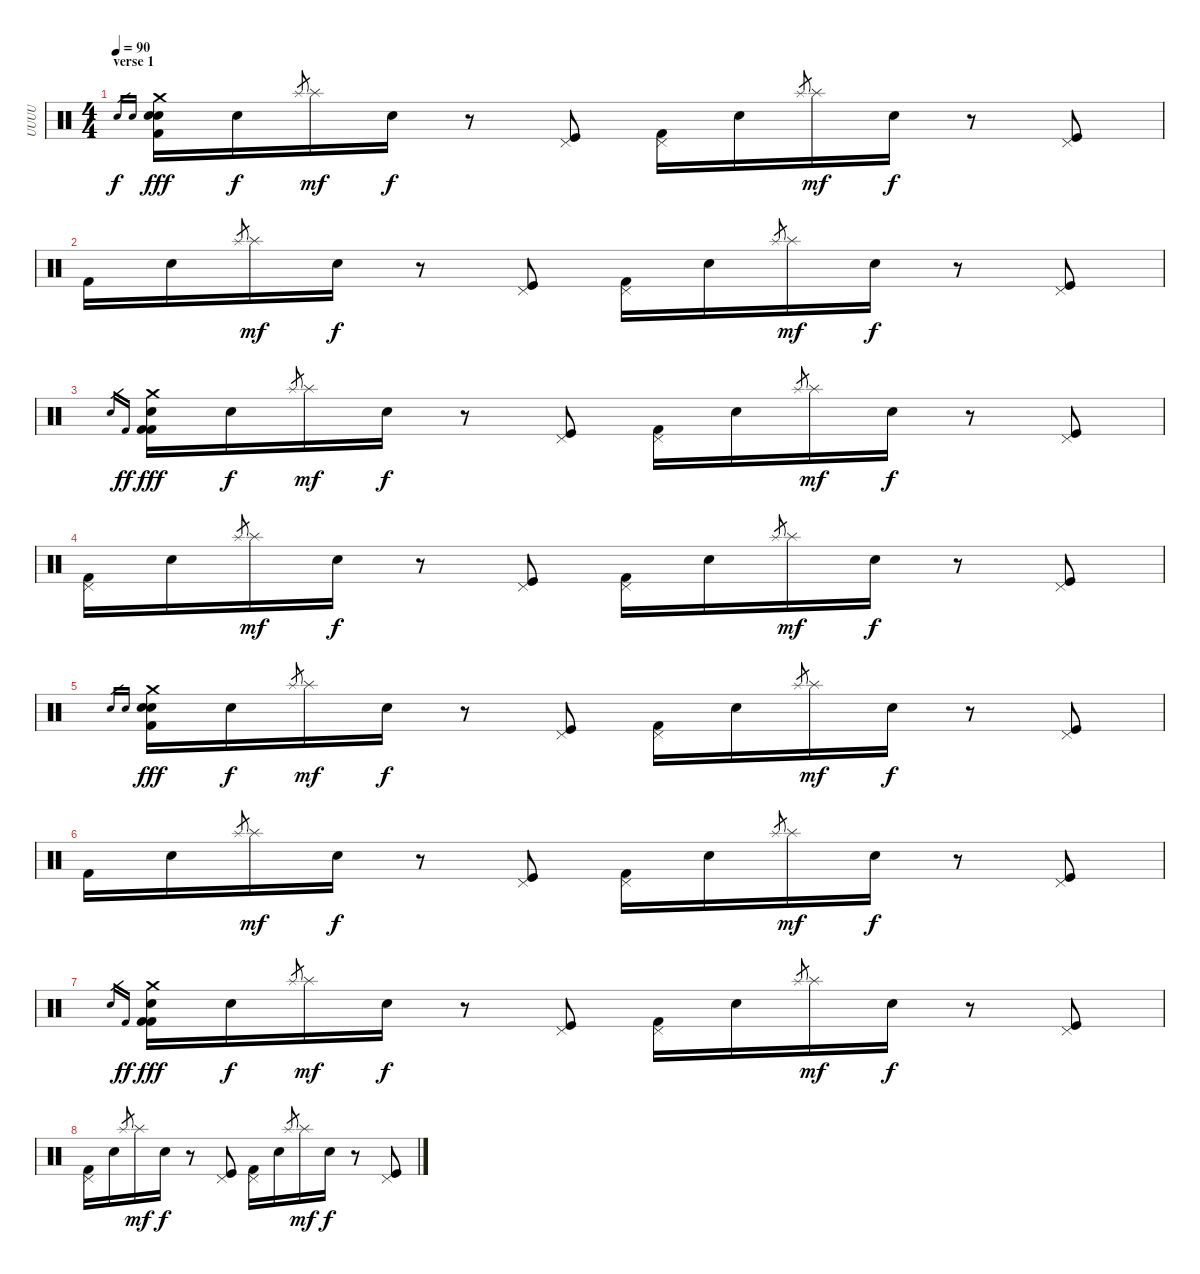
\track ("UUUU" "UUUU") {instrument percussion}
\staff {score}
\articulation defaults
\ts (4 4)
\section ("" "verse 1")
\tempo 90
\clef neutral
\ks c "Electric Snare (hit)".16{gr dy f} "Snare (hit) 2".16{gr}
("Crash medium (hit)" "Kick (hit) 2" "Electric Snare (hit)" "Snare (hit) 2").16{dy fff} "Snare (hit) 2".16{dy f} "Splash (hit)".8{gr} "Splash (hit)".16{dy mf} "Electric Snare (hit)".16{dy f} r.8 ("Pedal Hi-Hat (hit)" "Kick (hit)").8 ("Pedal Hi-Hat (hit)" "Kick (hit) 2").16 "Snare (hit) 2".16 "Splash (hit)"{h}.8{gr} "Splash (hit)".16{dy mf} "Electric Snare (hit)".16{dy f} r.8 ("Pedal Hi-Hat (hit)" "Kick (hit)").8 |
"Kick (hit) 2".16 "Snare (hit) 2".16 "Splash (hit)".8{gr} "Splash (hit)".16{dy mf} "Electric Snare (hit)".16{dy f} r.8 ("Pedal Hi-Hat (hit)" "Kick (hit)").8 ("Pedal Hi-Hat (hit)" "Kick (hit) 2").16 "Snare (hit) 2".16 "Splash (hit)".8{gr} "Splash (hit)".16{dy mf} "Electric Snare (hit)".16{dy f} r.8 ("Pedal Hi-Hat (hit)" "Kick (hit)").8 |
"Electric Snare (hit)".16{gr} "Kick (hit) 2".16{gr dy ff} ("Crash medium (hit)" "Kick (hit) 2" "Electric Snare (hit)" "Kick (hit) 2").16{dy fff} "Snare (hit) 2".16{dy f} "Splash (hit)".8{gr} "Splash (hit)".16{dy mf} "Electric Snare (hit)".16{dy f} r.8 ("Pedal Hi-Hat (hit)" "Kick (hit)").8 ("Pedal Hi-Hat (hit)" "Kick (hit) 2").16 "Snare (hit) 2".16 "Splash (hit)".8{gr} "Splash (hit)".16{dy mf} "Electric Snare (hit)".16{dy f} r.8 ("Pedal Hi-Hat (hit)" "Kick (hit)").8 |
("Pedal Hi-Hat (hit)" "Kick (hit) 2").16 "Snare (hit) 2".16 "Splash (hit)".8{gr} "Splash (hit)".16{dy mf} "Electric Snare (hit)".16{dy f} r.8 ("Pedal Hi-Hat (hit)" "Kick (hit)").8 ("Pedal Hi-Hat (hit)" "Kick (hit) 2").16 "Snare (hit) 2".16 "Splash (hit)"{h}.8{gr} "Splash (hit)".16{dy mf} "Electric Snare (hit)".16{dy f} r.8 ("Pedal Hi-Hat (hit)" "Kick (hit)").8 |
"Electric Snare (hit)".16{gr} "Snare (hit) 2".16{gr} ("Crash medium (hit)" "Kick (hit) 2" "Electric Snare (hit)" "Snare (hit) 2").16{dy fff} "Snare (hit) 2".16{dy f} "Splash (hit)".8{gr} "Splash (hit)".16{dy mf} "Electric Snare (hit)".16{dy f} r.8 ("Pedal Hi-Hat (hit)" "Kick (hit)").8 ("Pedal Hi-Hat (hit)" "Kick (hit) 2").16 "Snare (hit) 2".16 "Splash (hit)"{h}.8{gr} "Splash (hit)".16{dy mf} "Electric Snare (hit)".16{dy f} r.8 ("Pedal Hi-Hat (hit)" "Kick (hit)").8 |
"Kick (hit) 2".16 "Snare (hit) 2".16 "Splash (hit)".8{gr} "Splash (hit)".16{dy mf} "Electric Snare (hit)".16{dy f} r.8 ("Pedal Hi-Hat (hit)" "Kick (hit)").8 ("Pedal Hi-Hat (hit)" "Kick (hit) 2").16 "Snare (hit) 2".16 "Splash (hit)".8{gr} "Splash (hit)".16{dy mf} "Electric Snare (hit)".16{dy f} r.8 ("Pedal Hi-Hat (hit)" "Kick (hit)").8 |
"Electric Snare (hit)".16{gr} "Kick (hit) 2".16{gr dy ff} ("Crash medium (hit)" "Kick (hit) 2" "Electric Snare (hit)" "Kick (hit) 2").16{dy fff} "Snare (hit) 2".16{dy f} "Splash (hit)".8{gr} "Splash (hit)".16{dy mf} "Electric Snare (hit)".16{dy f} r.8 ("Pedal Hi-Hat (hit)" "Kick (hit)").8 ("Pedal Hi-Hat (hit)" "Kick (hit) 2").16 "Snare (hit) 2".16 "Splash (hit)".8{gr} "Splash (hit)".16{dy mf} "Electric Snare (hit)".16{dy f} r.8 ("Pedal Hi-Hat (hit)" "Kick (hit)").8 |
("Pedal Hi-Hat (hit)" "Kick (hit) 2").16 "Snare (hit) 2".16 "Splash (hit)".8{gr} "Splash (hit)".16{dy mf} "Electric Snare (hit)".16{dy f} r.8 ("Pedal Hi-Hat (hit)" "Kick (hit)").8 ("Pedal Hi-Hat (hit)" "Kick (hit) 2").16 "Snare (hit) 2".16 "Splash (hit)"{h}.8{gr} "Splash (hit)".16{dy mf} "Electric Snare (hit)".16{dy f} r.8 ("Pedal Hi-Hat (hit)" "Kick (hit)").8
